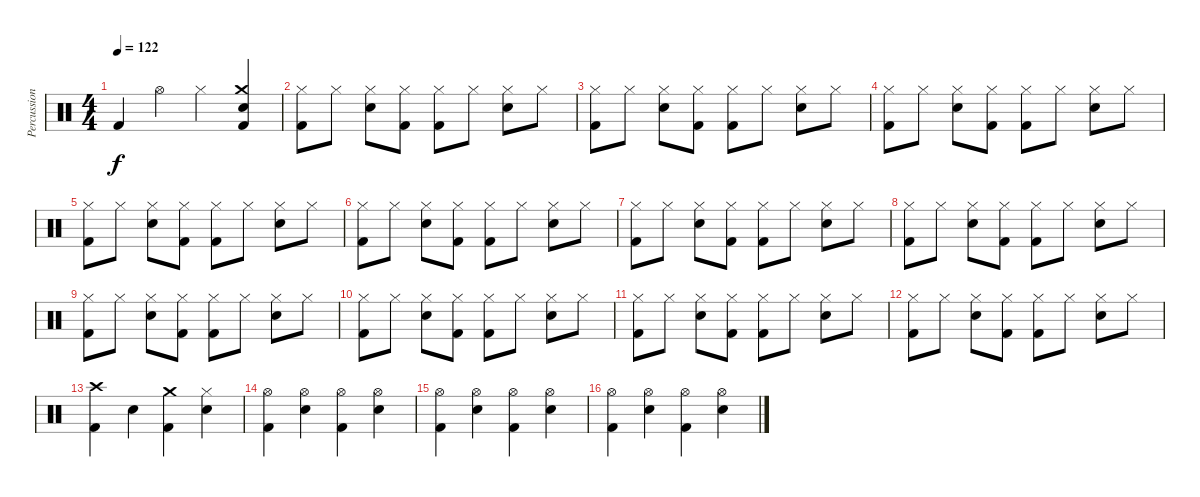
\track ("Percussion" "Percussion") {instrument percussion}
\staff {score}
\articulation defaults
\ts (4 4)
\tempo 122
\clef neutral
\ks c "Kick (hit) 2".4{dy f} "Hi-Hat (open)".4 "Hi-Hat (closed)".4
("Crash medium (hit)" "Electric Snare (hit)" "Kick (hit) 2").4 |
("Hi-Hat (closed)" "Kick (hit) 2").8 "Hi-Hat (closed)".8 ("Hi-Hat (closed)" "Electric Snare (hit)").8 ("Hi-Hat (closed)" "Kick (hit) 2").8 ("Hi-Hat (closed)" "Kick (hit) 2").8 "Hi-Hat (closed)".8 ("Hi-Hat (closed)" "Electric Snare (hit)").8 "Hi-Hat (closed)".8 |
("Hi-Hat (closed)" "Kick (hit) 2").8 "Hi-Hat (closed)".8 ("Hi-Hat (closed)" "Electric Snare (hit)").8 ("Hi-Hat (closed)" "Kick (hit) 2").8 ("Hi-Hat (closed)" "Kick (hit) 2").8 "Hi-Hat (closed)".8 ("Hi-Hat (closed)" "Electric Snare (hit)").8 "Hi-Hat (closed)".8 |
("Hi-Hat (closed)" "Kick (hit) 2").8 "Hi-Hat (closed)".8 ("Hi-Hat (closed)" "Electric Snare (hit)").8 ("Hi-Hat (closed)" "Kick (hit) 2").8 ("Hi-Hat (closed)" "Kick (hit) 2").8 "Hi-Hat (closed)".8 ("Hi-Hat (closed)" "Electric Snare (hit)").8 "Hi-Hat (closed)".8 |
("Hi-Hat (closed)" "Kick (hit) 2").8 "Hi-Hat (closed)".8 ("Hi-Hat (closed)" "Electric Snare (hit)").8 ("Hi-Hat (closed)" "Kick (hit) 2").8 ("Hi-Hat (closed)" "Kick (hit) 2").8 "Hi-Hat (closed)".8 ("Hi-Hat (closed)" "Electric Snare (hit)").8 "Hi-Hat (closed)".8 |
("Hi-Hat (closed)" "Kick (hit) 2").8 "Hi-Hat (closed)".8 ("Hi-Hat (closed)" "Electric Snare (hit)").8 ("Hi-Hat (closed)" "Kick (hit) 2").8 ("Hi-Hat (closed)" "Kick (hit) 2").8 "Hi-Hat (closed)".8 ("Hi-Hat (closed)" "Electric Snare (hit)").8 "Hi-Hat (closed)".8 |
("Hi-Hat (closed)" "Kick (hit) 2").8 "Hi-Hat (closed)".8 ("Hi-Hat (closed)" "Electric Snare (hit)").8 ("Hi-Hat (closed)" "Kick (hit) 2").8 ("Hi-Hat (closed)" "Kick (hit) 2").8 "Hi-Hat (closed)".8 ("Hi-Hat (closed)" "Electric Snare (hit)").8 "Hi-Hat (closed)".8 |
("Hi-Hat (closed)" "Kick (hit) 2").8 "Hi-Hat (closed)".8 ("Hi-Hat (closed)" "Electric Snare (hit)").8 ("Hi-Hat (closed)" "Kick (hit) 2").8 ("Hi-Hat (closed)" "Kick (hit) 2").8 "Hi-Hat (closed)".8 ("Hi-Hat (closed)" "Electric Snare (hit)").8 "Hi-Hat (closed)".8 |
("Hi-Hat (closed)" "Kick (hit) 2").8 "Hi-Hat (closed)".8 ("Hi-Hat (closed)" "Electric Snare (hit)").8 ("Hi-Hat (closed)" "Kick (hit) 2").8 ("Hi-Hat (closed)" "Kick (hit) 2").8 "Hi-Hat (closed)".8 ("Hi-Hat (closed)" "Electric Snare (hit)").8 "Hi-Hat (closed)".8 |
("Hi-Hat (closed)" "Kick (hit) 2").8 "Hi-Hat (closed)".8 ("Hi-Hat (closed)" "Electric Snare (hit)").8 ("Hi-Hat (closed)" "Kick (hit) 2").8 ("Hi-Hat (closed)" "Kick (hit) 2").8 "Hi-Hat (closed)".8 ("Hi-Hat (closed)" "Electric Snare (hit)").8 "Hi-Hat (closed)".8 |
("Hi-Hat (closed)" "Kick (hit) 2").8 "Hi-Hat (closed)".8 ("Hi-Hat (closed)" "Electric Snare (hit)").8 ("Hi-Hat (closed)" "Kick (hit) 2").8 ("Hi-Hat (closed)" "Kick (hit) 2").8 "Hi-Hat (closed)".8 ("Hi-Hat (closed)" "Electric Snare (hit)").8 "Hi-Hat (closed)".8 |
("Hi-Hat (closed)" "Kick (hit) 2").8 "Hi-Hat (closed)".8 ("Hi-Hat (closed)" "Electric Snare (hit)").8 ("Hi-Hat (closed)" "Kick (hit) 2").8 ("Hi-Hat (closed)" "Kick (hit) 2").8 "Hi-Hat (closed)".8 ("Hi-Hat (closed)" "Electric Snare (hit)").8 "Hi-Hat (closed)".8 |
("Crash high (hit)" "Kick (hit) 2").4 "Electric Snare (hit)".4 ("Crash medium (hit)" "Kick (hit) 2").4 ("Hi-Hat (closed)" "Electric Snare (hit)").4 |
("Hi-Hat (open)" "Kick (hit) 2").4 ("Hi-Hat (open)" "Electric Snare (hit)").4 ("Hi-Hat (open)" "Kick (hit) 2").4 ("Hi-Hat (open)" "Electric Snare (hit)").4 |
("Hi-Hat (open)" "Kick (hit) 2").4 ("Hi-Hat (open)" "Electric Snare (hit)").4 ("Hi-Hat (open)" "Kick (hit) 2").4 ("Hi-Hat (open)" "Electric Snare (hit)").4 |
("Hi-Hat (open)" "Kick (hit) 2").4 ("Hi-Hat (open)" "Electric Snare (hit)").4 ("Hi-Hat (open)" "Kick (hit) 2").4 ("Hi-Hat (open)" "Electric Snare (hit)").4
